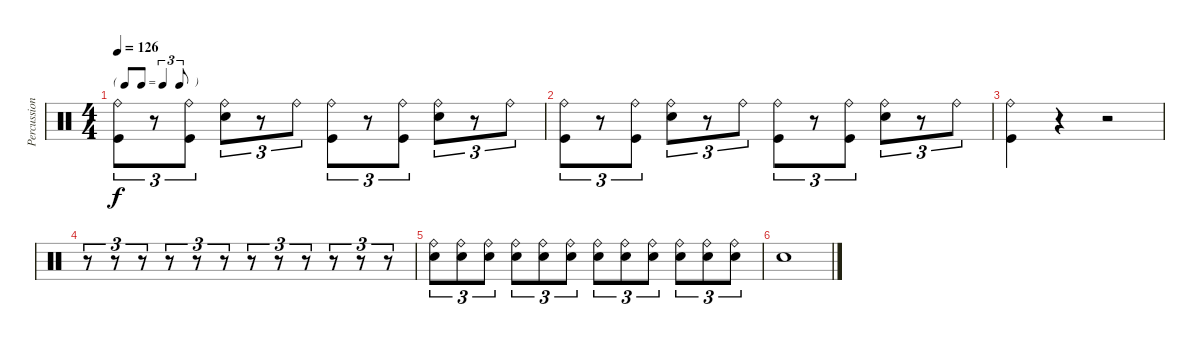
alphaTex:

\track ("Percussions" "Percussion") {instrument percussion}
\staff {score}
\articulation defaults
\ts (4 4)
\tf triplet8th
\tempo 126
\clef neutral
\ks c
("Ride (bell)" "Kick (hit)").8{tu (3 2) dy f} r.8{tu (3 2)} ("Ride (bell)" "Kick (hit)").8{tu (3 2)} ("Ride (bell)" "Electric Snare (hit)").8{tu (3 2)} r.8{tu (3 2)} "Ride (bell)".8{tu (3 2)} ("Ride (bell)" "Kick (hit)").8{tu (3 2)} r.8{tu (3 2)} ("Ride (bell)" "Kick (hit)").8{tu (3 2)} ("Ride (bell)" "Electric Snare (hit)").8{tu (3 2)} r.8{tu (3 2)} "Ride (bell)".8{tu (3 2)} |
("Ride (bell)" "Kick (hit)").8{tu (3 2)} r.8{tu (3 2)} ("Ride (bell)" "Kick (hit)").8{tu (3 2)} ("Ride (bell)" "Electric Snare (hit)").8{tu (3 2)} r.8{tu (3 2)} "Ride (bell)".8{tu (3 2)} ("Ride (bell)" "Kick (hit)").8{tu (3 2)} r.8{tu (3 2)} ("Ride (bell)" "Kick (hit)").8{tu (3 2)} ("Ride (bell)" "Electric Snare (hit)").8{tu (3 2)} r.8{tu (3 2)} "Ride (bell)".8{tu (3 2)} |
("Ride (bell)" "Kick (hit)").4 r.4 r.2 |
r.8{tu (3 2)} r.8{tu (3 2)} r.8{tu (3 2)} r.8{tu (3 2)} r.8{tu (3 2)} r.8{tu (3 2)} r.8{tu (3 2)} r.8{tu (3 2)} r.8{tu (3 2)} r.8{tu (3 2)} r.8{tu (3 2)} r.8{tu (3 2)} |
("Ride (bell)" "Electric Snare (hit)").8{tu (3 2)} ("Ride (bell)" "Electric Snare (hit)").8{tu (3 2)} ("Ride (bell)" "Electric Snare (hit)").8{tu (3 2)} ("Ride (bell)" "Electric Snare (hit)").8{tu (3 2)} ("Ride (bell)" "Electric Snare (hit)").8{tu (3 2)} ("Ride (bell)" "Electric Snare (hit)").8{tu (3 2)} ("Ride (bell)" "Electric Snare (hit)").8{tu (3 2)} ("Ride (bell)" "Electric Snare (hit)").8{tu (3 2)} ("Ride (bell)" "Electric Snare (hit)").8{tu (3 2)} ("Ride (bell)" "Electric Snare (hit)").8{tu (3 2)} ("Ride (bell)" "Electric Snare (hit)").8{tu (3 2)} ("Ride (bell)" "Electric Snare (hit)").8{tu (3 2)} |
"Electric Snare (hit)".1
